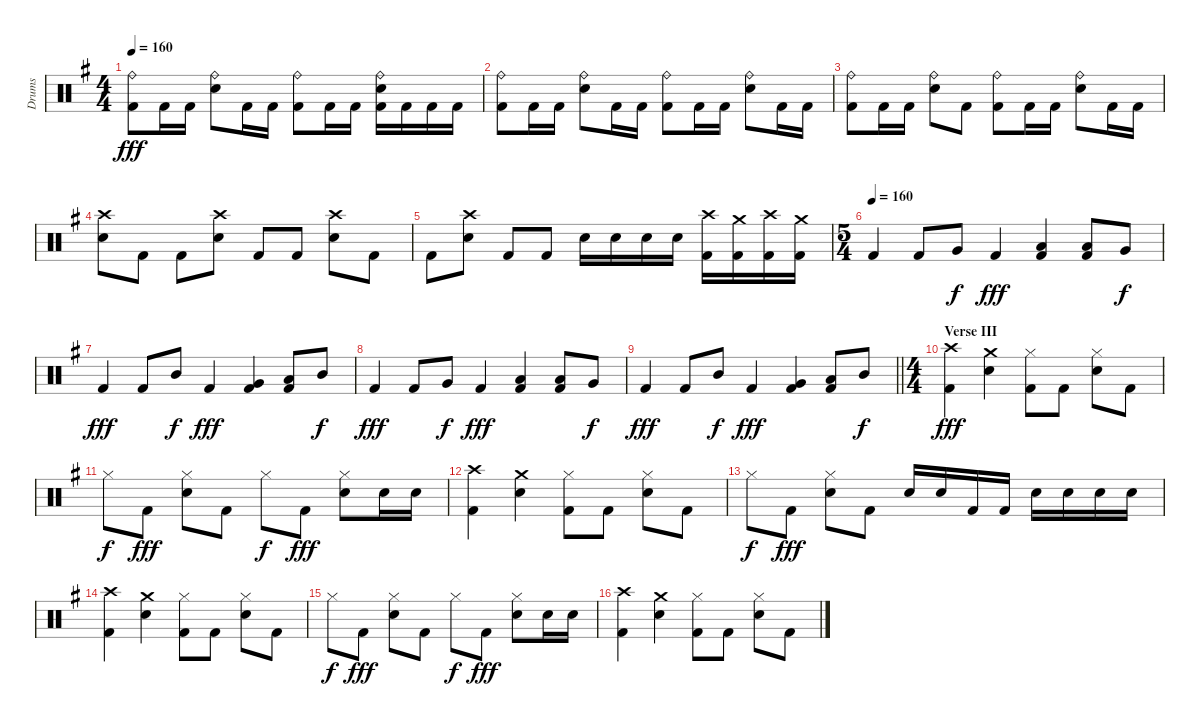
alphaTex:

\track ("Drums" "Drums") {instrument percussion}
\staff {score}
\articulation defaults
\ts (4 4)
\tempo 160
\clef neutral
\ks g
("Ride (bell)" "Kick (hit) 2").8{dy fff} "Kick (hit) 2".16 "Kick (hit) 2".16 ("Ride (bell)" "Snare (hit) 2").8 "Kick (hit) 2".16 "Kick (hit) 2".16 ("Ride (bell)" "Kick (hit) 2").8 "Kick (hit) 2".16 "Kick (hit) 2".16 ("Ride (bell)" "Snare (hit) 2" "Kick (hit) 2").16 "Kick (hit) 2".16 "Kick (hit) 2".16 "Kick (hit) 2".16 |
("Ride (bell)" "Kick (hit) 2").8 "Kick (hit) 2".16 "Kick (hit) 2".16 ("Ride (bell)" "Snare (hit) 2").8 "Kick (hit) 2".16 "Kick (hit) 2".16 ("Ride (bell)" "Kick (hit) 2").8 "Kick (hit) 2".16 "Kick (hit) 2".16 ("Ride (bell)" "Snare (hit) 2").8 "Kick (hit) 2".16 "Kick (hit) 2".16 |
("Ride (bell)" "Kick (hit) 2").8 "Kick (hit) 2".16 "Kick (hit) 2".16 ("Ride (bell)" "Snare (hit) 2").8 "Kick (hit) 2".8 ("Ride (bell)" "Kick (hit) 2").8 "Kick (hit) 2".16 "Kick (hit) 2".16 ("Ride (bell)" "Snare (hit) 2").8 "Kick (hit) 2".16 "Kick (hit) 2".16 |
("Crash high (hit)" "Snare (hit) 2").8 "Kick (hit) 2".8 "Kick (hit) 2".8 ("Crash high (hit)" "Snare (hit) 2").8 "Kick (hit) 2".8 "Kick (hit) 2".8 ("Crash high (hit)" "Snare (hit) 2").8 "Kick (hit) 2".8 |
"Kick (hit) 2".8 ("Crash high (hit)" "Snare (hit) 2").8 "Kick (hit) 2".8 "Kick (hit) 2".8 "Snare (hit) 2".16 "Snare (hit) 2".16 "Snare (hit) 2".16 "Snare (hit) 2".16 ("Crash high (hit)" "Kick (hit) 2").16 ("Crash medium (hit)" "Kick (hit) 2").16 ("Crash high (hit)" "Kick (hit) 2").16 ("Crash medium (hit)" "Kick (hit) 2").16 |
\ts (5 4)
\tempo (160)
"Kick (hit) 2".4{volume 16} "Kick (hit) 2".8 "Very Low Tom (hit)".8{dy f} "Kick (hit) 2".4{dy fff} ("Low Tom (hit)" "Kick (hit) 2").4 ("Low Tom (hit)" "Kick (hit) 2").8 "Very Low Tom (hit)".8{dy f} |
"Kick (hit) 2".4{dy fff} "Kick (hit) 2".8 "Mid Tom (hit)".8{dy f} "Kick (hit) 2".4{dy fff} ("Very Low Tom (hit)" "Kick (hit) 2").4 ("Low Tom (hit)" "Kick (hit) 2").8 "Mid Tom (hit)".8{dy f} |
"Kick (hit) 2".4{dy fff} "Kick (hit) 2".8 "Very Low Tom (hit)".8{dy f} "Kick (hit) 2".4{dy fff} ("Low Tom (hit)" "Kick (hit) 2").4 ("Low Tom (hit)" "Kick (hit) 2").8 "Very Low Tom (hit)".8{dy f} |
\barLineRight lightlight "Kick (hit) 2".4{dy fff} "Kick (hit) 2".8 "Mid Tom (hit)".8{dy f} "Kick (hit) 2".4{dy fff}
("Very Low Tom (hit)" "Kick (hit) 2").4 ("Low Tom (hit)" "Kick (hit) 2").8 "Mid Tom (hit)".8{dy f} |
\ts (4 4)
\section ("" "Verse III")
("Crash high (hit)" "Kick (hit) 2").4{dy fff} ("Crash medium (hit)" "Snare (hit) 2").4 ("Hi-Hat (closed)" "Kick (hit) 2").8 "Kick (hit) 2".8 ("Hi-Hat (closed)" "Snare (hit) 2").8 "Kick (hit) 2".8 |
"Hi-Hat (closed)".8{dy f} "Kick (hit) 2".8{dy fff} ("Hi-Hat (closed)" "Snare (hit) 2").8 "Kick (hit) 2".8 "Hi-Hat (closed)".8{dy f} "Kick (hit) 2".8{dy fff} ("Hi-Hat (closed)" "Snare (hit) 2").8 "Snare (hit) 2".16 "Snare (hit) 2".16 |
("Crash high (hit)" "Kick (hit) 2").4 ("Crash medium (hit)" "Snare (hit) 2").4 ("Hi-Hat (closed)" "Kick (hit) 2").8 "Kick (hit) 2".8 ("Hi-Hat (closed)" "Snare (hit) 2").8 "Kick (hit) 2".8 |
"Hi-Hat (closed)".8{dy f} "Kick (hit) 2".8{dy fff} ("Hi-Hat (closed)" "Snare (hit) 2").8 "Kick (hit) 2".8 "Snare (hit) 2".16 "Snare (hit) 2".16 "Kick (hit) 2".16 "Kick (hit) 2".16 "Snare (hit) 2".16 "Snare (hit) 2".16 "Snare (hit) 2".16 "Snare (hit) 2".16 |
("Crash high (hit)" "Kick (hit) 2").4 ("Crash medium (hit)" "Snare (hit) 2").4 ("Hi-Hat (closed)" "Kick (hit) 2").8 "Kick (hit) 2".8 ("Hi-Hat (closed)" "Snare (hit) 2").8 "Kick (hit) 2".8 |
"Hi-Hat (closed)".8{dy f} "Kick (hit) 2".8{dy fff} ("Hi-Hat (closed)" "Snare (hit) 2").8 "Kick (hit) 2".8 "Hi-Hat (closed)".8{dy f} "Kick (hit) 2".8{dy fff} ("Hi-Hat (closed)" "Snare (hit) 2").8 "Snare (hit) 2".16 "Snare (hit) 2".16 |
("Crash high (hit)" "Kick (hit) 2").4 ("Crash medium (hit)" "Snare (hit) 2").4 ("Hi-Hat (closed)" "Kick (hit) 2").8 "Kick (hit) 2".8 ("Hi-Hat (closed)" "Snare (hit) 2").8 "Kick (hit) 2".8
